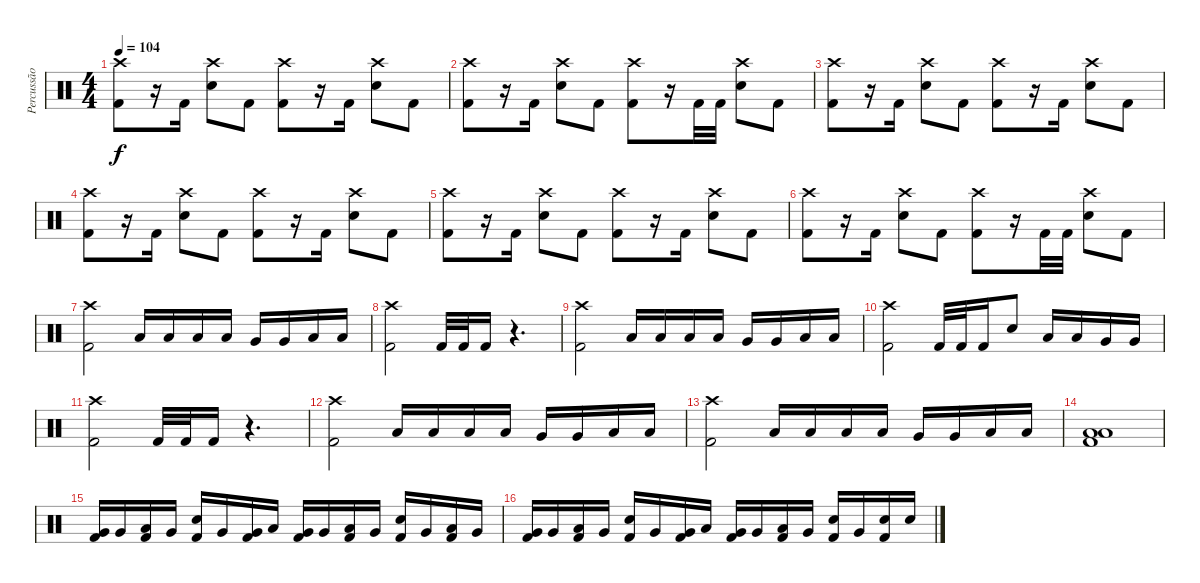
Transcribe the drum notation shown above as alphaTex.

\track ("Percussão" "Percussão") {instrument percussion}
\staff {score}
\articulation defaults
\ts (4 4)
\tempo 104
\clef neutral
\ks c
("Crash high (hit)" "Kick (hit) 2").8{dy f} r.16 "Kick (hit) 2".16 ("Crash high (hit)" "Electric Snare (hit)").8 "Kick (hit) 2".8 ("Crash high (hit)" "Kick (hit) 2").8 r.16 "Kick (hit) 2".16 ("Crash high (hit)" "Electric Snare (hit)").8 "Kick (hit) 2".8 |
("Crash high (hit)" "Kick (hit) 2").8 r.16 "Kick (hit) 2".16 ("Crash high (hit)" "Electric Snare (hit)").8 "Kick (hit) 2".8 ("Crash high (hit)" "Kick (hit) 2").8 r.16 "Kick (hit) 2".32 "Kick (hit) 2".32 ("Crash high (hit)" "Electric Snare (hit)").8 "Kick (hit) 2".8 |
("Crash high (hit)" "Kick (hit) 2").8 r.16 "Kick (hit) 2".16 ("Crash high (hit)" "Electric Snare (hit)").8 "Kick (hit) 2".8 ("Crash high (hit)" "Kick (hit) 2").8 r.16 "Kick (hit) 2".16 ("Crash high (hit)" "Electric Snare (hit)").8 "Kick (hit) 2".8 |
("Crash high (hit)" "Kick (hit) 2").8 r.16 "Kick (hit) 2".16 ("Crash high (hit)" "Electric Snare (hit)").8 "Kick (hit) 2".8 ("Crash high (hit)" "Kick (hit) 2").8 r.16 "Kick (hit) 2".16 ("Crash high (hit)" "Electric Snare (hit)").8 "Kick (hit) 2".8 |
("Crash high (hit)" "Kick (hit) 2").8 r.16 "Kick (hit) 2".16 ("Crash high (hit)" "Electric Snare (hit)").8 "Kick (hit) 2".8 ("Crash high (hit)" "Kick (hit) 2").8 r.16 "Kick (hit) 2".16 ("Crash high (hit)" "Electric Snare (hit)").8 "Kick (hit) 2".8 |
("Crash high (hit)" "Kick (hit) 2").8 r.16 "Kick (hit) 2".16 ("Crash high (hit)" "Electric Snare (hit)").8 "Kick (hit) 2".8 ("Crash high (hit)" "Kick (hit) 2").8 r.16 "Kick (hit) 2".32 "Kick (hit) 2".32 ("Crash high (hit)" "Electric Snare (hit)").8 "Kick (hit) 2".8 |
("Crash high (hit)" "Kick (hit) 2").2 "Low Tom (hit)".16 "Low Tom (hit)".16 "Low Tom (hit)".16 "Low Tom (hit)".16 "Very Low Tom (hit)".16 "Very Low Tom (hit)".16 "Low Floor Tom (hit)".16 "Low Floor Tom (hit)".16 |
("Crash high (hit)" "Kick (hit) 2").2 "Kick (hit) 2".32 "Kick (hit) 2".32 "Kick (hit) 2".16 r.4{d} |
("Crash high (hit)" "Kick (hit) 2").2 "Low Tom (hit)".16 "Low Tom (hit)".16 "Low Tom (hit)".16 "Low Tom (hit)".16 "Very Low Tom (hit)".16 "Very Low Tom (hit)".16 "Low Floor Tom (hit)".16 "Low Floor Tom (hit)".16 |
("Crash high (hit)" "Kick (hit) 2").2 "Kick (hit) 2".32 "Kick (hit) 2".32 "Kick (hit) 2".16 "Electric Snare (hit)".8 "Low Tom (hit)".16 "Low Tom (hit)".16 "Very Low Tom (hit)".16 "Very Low Tom (hit)".16 |
("Crash high (hit)" "Kick (hit) 2").2 "Kick (hit) 2".32 "Kick (hit) 2".32 "Kick (hit) 2".16 r.4{d} |
("Crash high (hit)" "Kick (hit) 2").2 "Low Tom (hit)".16 "Low Tom (hit)".16 "Low Tom (hit)".16 "Low Tom (hit)".16 "Very Low Tom (hit)".16 "Very Low Tom (hit)".16 "Low Floor Tom (hit)".16 "Low Floor Tom (hit)".16 |
("Crash high (hit)" "Kick (hit) 2").2 "Low Tom (hit)".16 "Low Tom (hit)".16 "Low Tom (hit)".16 "Low Tom (hit)".16 "Very Low Tom (hit)".16 "Very Low Tom (hit)".16 "Low Floor Tom (hit)".16 "Low Floor Tom (hit)".16 |
("Low Floor Tom (hit)" "Low Floor Tom (hit)" "Kick (hit) 2").1 |
("Very Low Tom (hit)" "Kick (hit) 2").16 "Very Low Tom (hit)".16 ("Low Tom (hit)" "Kick (hit) 2").16 "Very Low Tom (hit)".16 ("Electric Snare (hit)" "Kick (hit) 2").16 "Very Low Tom (hit)".16 ("Very Low Tom (hit)" "Kick (hit) 2").16 "Low Tom (hit)".16 ("Very Low Tom (hit)" "Kick (hit) 2").16 "Very Low Tom (hit)".16 ("Low Tom (hit)" "Kick (hit) 2").16 "Very Low Tom (hit)".16 ("Electric Snare (hit)" "Kick (hit) 2").16 "Very Low Tom (hit)".16 ("Low Tom (hit)" "Kick (hit) 2").16 "Very Low Tom (hit)".16 |
("Very Low Tom (hit)" "Kick (hit) 2").16 "Very Low Tom (hit)".16 ("Low Tom (hit)" "Kick (hit) 2").16 "Very Low Tom (hit)".16 ("Electric Snare (hit)" "Kick (hit) 2").16 "Very Low Tom (hit)".16 ("Very Low Tom (hit)" "Kick (hit) 2").16 "Low Tom (hit)".16 ("Very Low Tom (hit)" "Kick (hit) 2").16 "Very Low Tom (hit)".16 ("Low Tom (hit)" "Kick (hit) 2").16 "Very Low Tom (hit)".16 ("Electric Snare (hit)" "Kick (hit) 2").16 "Very Low Tom (hit)".16 ("Electric Snare (hit)" "Kick (hit) 2").16 "Electric Snare (hit)".16
